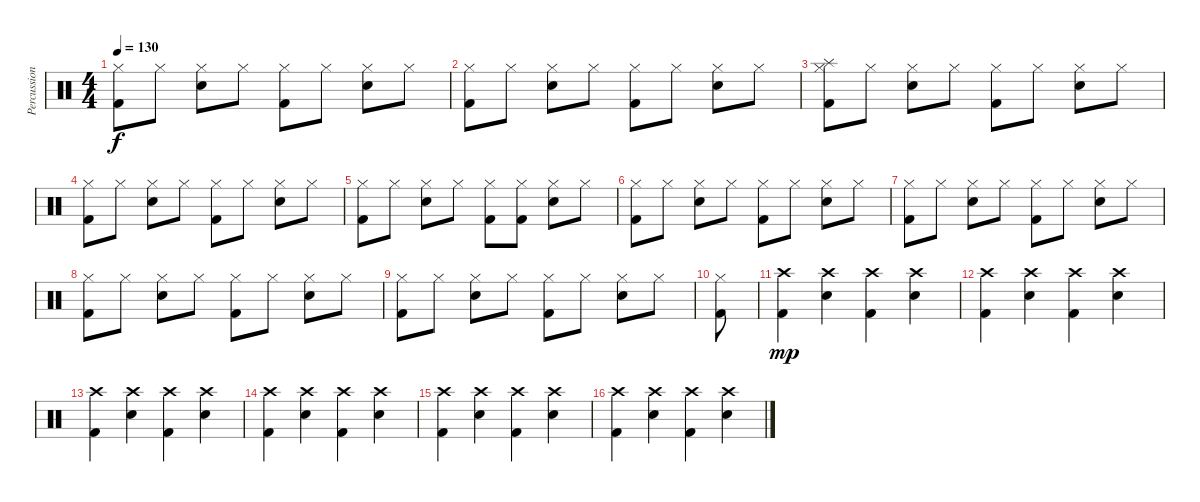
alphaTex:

\track ("Percussion" "Percussion") {instrument percussion}
\staff {score}
\articulation defaults
\ts (4 4)
\tempo 130
\clef neutral
\ks c
("Hi-Hat (closed)" "Kick (hit) 2").8{dy f} "Hi-Hat (closed)".8 ("Hi-Hat (closed)" "Electric Snare (hit)").8 "Hi-Hat (closed)".8 ("Hi-Hat (closed)" "Kick (hit) 2").8 "Hi-Hat (closed)".8 ("Hi-Hat (closed)" "Electric Snare (hit)").8 "Hi-Hat (closed)".8 |
("Hi-Hat (closed)" "Kick (hit) 2").8 "Hi-Hat (closed)".8 ("Hi-Hat (closed)" "Electric Snare (hit)").8 "Hi-Hat (closed)".8 ("Hi-Hat (closed)" "Kick (hit) 2").8 "Hi-Hat (closed)".8 ("Hi-Hat (closed)" "Electric Snare (hit)").8 "Hi-Hat (closed)".8 |
("Splash (hit)" "Hi-Hat (closed)" "Kick (hit) 2").8 "Hi-Hat (closed)".8 ("Hi-Hat (closed)" "Electric Snare (hit)").8 "Hi-Hat (closed)".8 ("Hi-Hat (closed)" "Kick (hit) 2").8 "Hi-Hat (closed)".8 ("Hi-Hat (closed)" "Electric Snare (hit)").8 "Hi-Hat (closed)".8 |
("Hi-Hat (closed)" "Kick (hit) 2").8 "Hi-Hat (closed)".8 ("Hi-Hat (closed)" "Electric Snare (hit)").8 "Hi-Hat (closed)".8 ("Hi-Hat (closed)" "Kick (hit) 2").8 "Hi-Hat (closed)".8 ("Hi-Hat (closed)" "Electric Snare (hit)").8 "Hi-Hat (closed)".8 |
("Hi-Hat (closed)" "Kick (hit) 2").8 "Hi-Hat (closed)".8 ("Hi-Hat (closed)" "Electric Snare (hit)").8 "Hi-Hat (closed)".8 ("Hi-Hat (closed)" "Kick (hit) 2").8 ("Hi-Hat (closed)" "Kick (hit) 2").8 ("Hi-Hat (closed)" "Electric Snare (hit)").8 "Hi-Hat (closed)".8 |
("Hi-Hat (closed)" "Kick (hit) 2").8 "Hi-Hat (closed)".8 ("Hi-Hat (closed)" "Electric Snare (hit)").8 "Hi-Hat (closed)".8 ("Hi-Hat (closed)" "Kick (hit) 2").8 "Hi-Hat (closed)".8 ("Hi-Hat (closed)" "Electric Snare (hit)").8 "Hi-Hat (closed)".8 |
("Hi-Hat (closed)" "Kick (hit) 2").8 "Hi-Hat (closed)".8 ("Hi-Hat (closed)" "Electric Snare (hit)").8 "Hi-Hat (closed)".8 ("Hi-Hat (closed)" "Kick (hit) 2").8 "Hi-Hat (closed)".8 ("Hi-Hat (closed)" "Electric Snare (hit)").8 "Hi-Hat (closed)".8 |
("Hi-Hat (closed)" "Kick (hit) 2").8 "Hi-Hat (closed)".8 ("Hi-Hat (closed)" "Electric Snare (hit)").8 "Hi-Hat (closed)".8 ("Hi-Hat (closed)" "Kick (hit) 2").8 "Hi-Hat (closed)".8 ("Hi-Hat (closed)" "Electric Snare (hit)").8 "Hi-Hat (closed)".8 |
("Hi-Hat (closed)" "Kick (hit) 2").8 "Hi-Hat (closed)".8 ("Hi-Hat (closed)" "Electric Snare (hit)").8 "Hi-Hat (closed)".8 ("Hi-Hat (closed)" "Kick (hit) 2").8 "Hi-Hat (closed)".8 ("Hi-Hat (closed)" "Electric Snare (hit)").8 "Hi-Hat (closed)".8 |
("Hi-Hat (closed)" "Kick (hit) 2").8 |
("Crash high (hit)" "Kick (hit) 2").4{dy mp} ("Crash high (hit)" "Snare (hit) 2").4 ("Crash high (hit)" "Kick (hit) 2").4 ("Crash high (hit)" "Snare (hit) 2").4 |
("Crash high (hit)" "Kick (hit) 2").4 ("Crash high (hit)" "Snare (hit) 2").4 ("Crash high (hit)" "Kick (hit) 2").4 ("Crash high (hit)" "Snare (hit) 2").4 |
("Crash high (hit)" "Kick (hit) 2").4 ("Crash high (hit)" "Snare (hit) 2").4 ("Crash high (hit)" "Kick (hit) 2").4 ("Crash high (hit)" "Snare (hit) 2").4 |
("Crash high (hit)" "Kick (hit) 2").4 ("Crash high (hit)" "Snare (hit) 2").4 ("Crash high (hit)" "Kick (hit) 2").4 ("Crash high (hit)" "Snare (hit) 2").4 |
("Crash high (hit)" "Kick (hit) 2").4 ("Crash high (hit)" "Snare (hit) 2").4 ("Crash high (hit)" "Kick (hit) 2").4 ("Crash high (hit)" "Snare (hit) 2").4 |
("Crash high (hit)" "Kick (hit) 2").4 ("Crash high (hit)" "Snare (hit) 2").4 ("Crash high (hit)" "Kick (hit) 2").4 ("Crash high (hit)" "Snare (hit) 2").4
